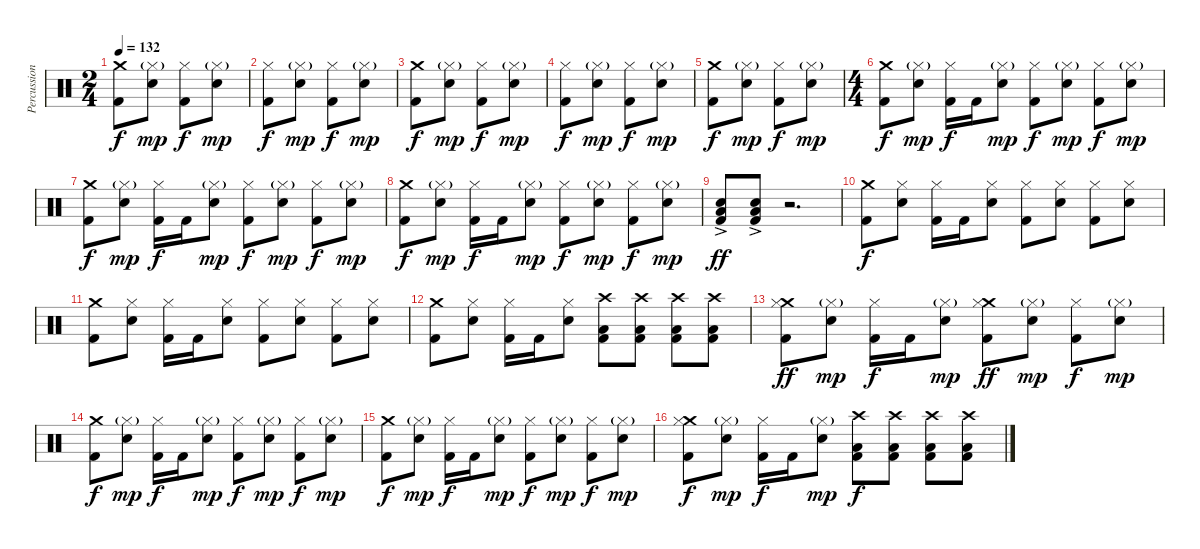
\track ("Percussion" "Percussion") {instrument percussion}
\staff {score}
\articulation defaults
\ts (2 4)
\tempo 132
\clef neutral
\ks c
("Crash medium (hit)" "Kick (hit) 2").8{dy f} ("Hi-Hat (closed)"{g} "Electric Snare (hit)").8{dy mp} ("Hi-Hat (closed)" "Kick (hit) 2").8{dy f} ("Hi-Hat (closed)"{g} "Electric Snare (hit)").8{dy mp} |
("Hi-Hat (closed)" "Kick (hit) 2").8{dy f} ("Hi-Hat (closed)"{g} "Electric Snare (hit)").8{dy mp} ("Hi-Hat (closed)" "Kick (hit) 2").8{dy f} ("Hi-Hat (closed)"{g} "Electric Snare (hit)").8{dy mp} |
("Crash medium (hit)" "Kick (hit) 2").8{dy f} ("Hi-Hat (closed)"{g} "Electric Snare (hit)").8{dy mp} ("Hi-Hat (closed)" "Kick (hit) 2").8{dy f} ("Hi-Hat (closed)"{g} "Electric Snare (hit)").8{dy mp} |
("Hi-Hat (closed)" "Kick (hit) 2").8{dy f} ("Hi-Hat (closed)"{g} "Electric Snare (hit)").8{dy mp} ("Hi-Hat (closed)" "Kick (hit) 2").8{dy f} ("Hi-Hat (closed)"{g} "Electric Snare (hit)").8{dy mp} |
("Crash medium (hit)" "Kick (hit) 2").8{dy f} ("Hi-Hat (closed)"{g} "Electric Snare (hit)").8{dy mp} ("Hi-Hat (closed)" "Kick (hit) 2").8{dy f} ("Hi-Hat (closed)"{g} "Electric Snare (hit)").8{dy mp} |
\ts (4 4)
("Crash medium (hit)" "Kick (hit) 2").8{dy f} ("Hi-Hat (closed)"{g} "Electric Snare (hit)").8{dy mp} ("Hi-Hat (closed)" "Kick (hit) 2").16{dy f} "Kick (hit) 2".16 ("Hi-Hat (closed)"{g} "Electric Snare (hit)").8{dy mp} ("Hi-Hat (closed)" "Kick (hit) 2").8{dy f} ("Hi-Hat (closed)"{g} "Electric Snare (hit)").8{dy mp} ("Hi-Hat (closed)" "Kick (hit) 2").8{dy f} ("Hi-Hat (closed)"{g} "Electric Snare (hit)").8{dy mp} |
("Crash medium (hit)" "Kick (hit) 2").8{dy f} ("Hi-Hat (closed)"{g} "Electric Snare (hit)").8{dy mp} ("Hi-Hat (closed)" "Kick (hit) 2").16{dy f} "Kick (hit) 2".16 ("Hi-Hat (closed)"{g} "Electric Snare (hit)").8{dy mp} ("Hi-Hat (closed)" "Kick (hit) 2").8{dy f} ("Hi-Hat (closed)"{g} "Electric Snare (hit)").8{dy mp} ("Hi-Hat (closed)" "Kick (hit) 2").8{dy f} ("Hi-Hat (closed)"{g} "Electric Snare (hit)").8{dy mp} |
("Crash medium (hit)" "Kick (hit) 2").8{dy f} ("Hi-Hat (closed)"{g} "Electric Snare (hit)").8{dy mp} ("Hi-Hat (closed)" "Kick (hit) 2").16{dy f} "Kick (hit) 2".16 ("Hi-Hat (closed)"{g} "Electric Snare (hit)").8{dy mp} ("Hi-Hat (closed)" "Kick (hit) 2").8{dy f} ("Hi-Hat (closed)"{g} "Electric Snare (hit)").8{dy mp} ("Hi-Hat (closed)" "Kick (hit) 2").8{dy f} ("Hi-Hat (closed)"{g} "Electric Snare (hit)").8{dy mp} |
("Low Floor Tom (hit)"{ac} "Electric Snare (hit)"{ac} "Kick (hit) 2"{ac}).8{dy ff} ("Low Floor Tom (hit)"{ac} "Electric Snare (hit)"{ac} "Kick (hit) 2"{ac}).8 r.2{d} |
("Crash medium (hit)" "Kick (hit) 2").8{dy f} ("Hi-Hat (closed)" "Electric Snare (hit)").8 ("Hi-Hat (closed)" "Kick (hit) 2").16 "Kick (hit) 2".16 ("Hi-Hat (closed)" "Electric Snare (hit)").8 ("Hi-Hat (closed)" "Kick (hit) 2").8 ("Hi-Hat (closed)" "Electric Snare (hit)").8 ("Hi-Hat (closed)" "Kick (hit) 2").8 ("Hi-Hat (closed)" "Electric Snare (hit)").8 |
("Crash medium (hit)" "Kick (hit) 2").8 ("Hi-Hat (closed)" "Electric Snare (hit)").8 ("Hi-Hat (closed)" "Kick (hit) 2").16 "Kick (hit) 2".16 ("Hi-Hat (closed)" "Electric Snare (hit)").8 ("Hi-Hat (closed)" "Kick (hit) 2").8 ("Hi-Hat (closed)" "Electric Snare (hit)").8 ("Hi-Hat (closed)" "Kick (hit) 2").8 ("Hi-Hat (closed)" "Electric Snare (hit)").8 |
("Crash medium (hit)" "Kick (hit) 2").8 ("Hi-Hat (closed)" "Electric Snare (hit)").8 ("Hi-Hat (closed)" "Kick (hit) 2").16 "Kick (hit) 2".16 ("Hi-Hat (closed)" "Electric Snare (hit)").8 ("Crash high (hit)" "Kick (hit) 2" "Low Floor Tom (hit)").8 ("Crash high (hit)" "Kick (hit) 2" "Low Floor Tom (hit)").8 ("Crash high (hit)" "Kick (hit) 2" "Low Floor Tom (hit)").8 ("Crash high (hit)" "Kick (hit) 2" "Low Floor Tom (hit)").8 |
("Crash medium (hit)" "Kick (hit) 2" "Hi-Hat (closed)").8{dy ff} ("Hi-Hat (closed)"{g} "Electric Snare (hit)").8{dy mp} ("Hi-Hat (closed)" "Kick (hit) 2").16{dy f} "Kick (hit) 2".16 ("Hi-Hat (closed)"{g} "Electric Snare (hit)").8{dy mp} ("Crash medium (hit)" "Kick (hit) 2" "Hi-Hat (closed)").8{dy ff} ("Hi-Hat (closed)"{g} "Electric Snare (hit)").8{dy mp} ("Hi-Hat (closed)" "Kick (hit) 2").8{dy f} ("Hi-Hat (closed)"{g} "Electric Snare (hit)").8{dy mp} |
("Crash medium (hit)" "Kick (hit) 2").8{dy f} ("Hi-Hat (closed)"{g} "Electric Snare (hit)").8{dy mp} ("Hi-Hat (closed)" "Kick (hit) 2").16{dy f} "Kick (hit) 2".16 ("Hi-Hat (closed)"{g} "Electric Snare (hit)").8{dy mp} ("Hi-Hat (closed)" "Kick (hit) 2").8{dy f} ("Hi-Hat (closed)"{g} "Electric Snare (hit)").8{dy mp} ("Hi-Hat (closed)" "Kick (hit) 2").8{dy f} ("Hi-Hat (closed)"{g} "Electric Snare (hit)").8{dy mp} |
("Crash medium (hit)" "Kick (hit) 2").8{dy f} ("Hi-Hat (closed)"{g} "Electric Snare (hit)").8{dy mp} ("Hi-Hat (closed)" "Kick (hit) 2").16{dy f} "Kick (hit) 2".16 ("Hi-Hat (closed)"{g} "Electric Snare (hit)").8{dy mp} ("Hi-Hat (closed)" "Kick (hit) 2").8{dy f} ("Hi-Hat (closed)"{g} "Electric Snare (hit)").8{dy mp} ("Hi-Hat (closed)" "Kick (hit) 2").8{dy f} ("Hi-Hat (closed)"{g} "Electric Snare (hit)").8{dy mp} |
("Crash medium (hit)" "Kick (hit) 2" "Hi-Hat (closed)").8{dy f} ("Hi-Hat (closed)"{g} "Electric Snare (hit)").8{dy mp} ("Hi-Hat (closed)" "Kick (hit) 2").16{dy f} "Kick (hit) 2".16 ("Hi-Hat (closed)"{g} "Electric Snare (hit)").8{dy mp} ("Crash high (hit)" "Kick (hit) 2" "Low Floor Tom (hit)").8{dy f} ("Crash high (hit)" "Kick (hit) 2" "Low Floor Tom (hit)").8 ("Crash high (hit)" "Kick (hit) 2" "Low Floor Tom (hit)").8 ("Crash high (hit)" "Kick (hit) 2" "Low Floor Tom (hit)").8
